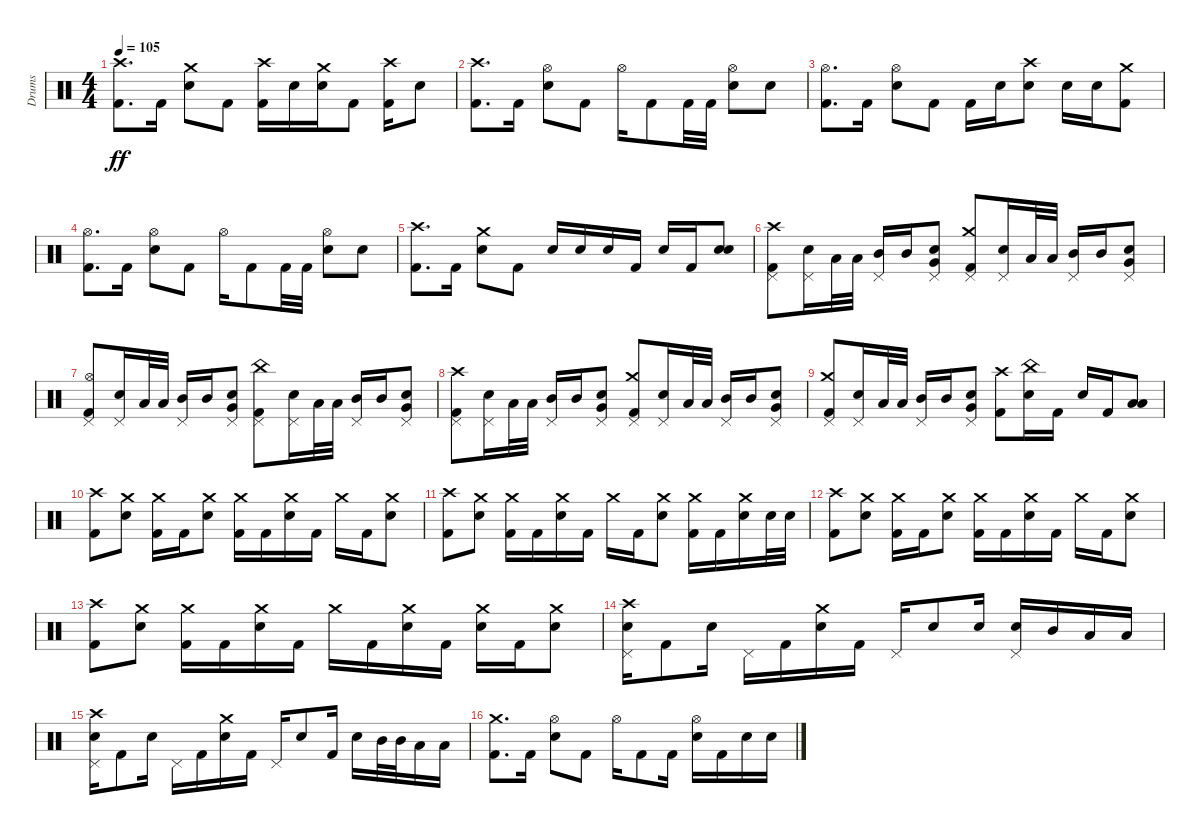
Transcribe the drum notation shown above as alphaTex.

\track ("Drums" "Drums") {instrument percussion}
\staff {score}
\articulation defaults
\ts (4 4)
\tempo 105
\clef neutral
\ks c
("Crash high (hit)" "Kick (hit) 2").8{d dy ff} "Kick (hit) 2".16 ("Crash medium (hit)" "Electric Snare (hit)").8 "Kick (hit) 2".8 ("Crash high (hit)" "Kick (hit) 2").16 "Electric Snare (hit)".16 ("Crash medium (hit)" "Electric Snare (hit)").16 "Kick (hit) 2".8 ("Crash high (hit)" "Kick (hit) 2").16 "Electric Snare (hit)".8 |
("Crash high (hit)" "Kick (hit) 2").8{d} "Kick (hit) 2".16 ("Hi-Hat (open)" "Electric Snare (hit)").8 "Kick (hit) 2".8 "Hi-Hat (open)".16 "Kick (hit) 2".8 "Kick (hit) 2".32 "Kick (hit) 2".32 ("Hi-Hat (open)" "Electric Snare (hit)").8 "Electric Snare (hit)".8 |
("Hi-Hat (open)" "Kick (hit) 2").8{d} "Kick (hit) 2".16 ("Hi-Hat (open)" "Electric Snare (hit)").8 "Kick (hit) 2".8 "Kick (hit) 2".16 "Electric Snare (hit)".16 ("Crash high (hit)" "Electric Snare (hit)").8 "Electric Snare (hit)".16 "Electric Snare (hit)".16 ("Crash medium (hit)" "Kick (hit) 2").8 |
("Hi-Hat (open)" "Kick (hit) 2").8{d} "Kick (hit) 2".16 ("Hi-Hat (open)" "Electric Snare (hit)").8 "Kick (hit) 2".8 "Hi-Hat (open)".16 "Kick (hit) 2".8 "Kick (hit) 2".32 "Kick (hit) 2".32 ("Hi-Hat (open)" "Electric Snare (hit)").8 "Electric Snare (hit)".8 |
("Crash high (hit)" "Kick (hit) 2").8{d} "Kick (hit) 2".16 ("Crash medium (hit)" "Electric Snare (hit)").8 "Kick (hit) 2".8 "Electric Snare (hit)".16 "Electric Snare (hit)".16 "Electric Snare (hit)".16 "Kick (hit) 2".16 "Electric Snare (hit)".16 "Kick (hit) 2".16 ("Electric Snare (hit)" "Electric Snare (hit)").8{bd 240} |
("Pedal Hi-Hat (hit)" "Crash high (hit)" "Kick (hit) 2").8 ("Pedal Hi-Hat (hit)" "Electric Snare (hit)").16 "Low Tom (hit)".32 "Low Tom (hit)".32 ("Pedal Hi-Hat (hit)" "Mid Tom (hit)").16 "Mid Tom (hit)".16 ("Pedal Hi-Hat (hit)" "Very Low Tom (hit)" "Electric Snare (hit)").8 ("Pedal Hi-Hat (hit)" "Crash medium (hit)" "Kick (hit) 2").8 ("Pedal Hi-Hat (hit)" "Electric Snare (hit)").16 "Low Tom (hit)".32 "Low Tom (hit)".32 ("Pedal Hi-Hat (hit)" "Mid Tom (hit)").16 "Mid Tom (hit)".16 ("Pedal Hi-Hat (hit)" "Very Low Tom (hit)" "Electric Snare (hit)").8 |
("Pedal Hi-Hat (hit)" "Hi-Hat (open)" "Kick (hit) 2").8 ("Pedal Hi-Hat (hit)" "Electric Snare (hit)").16 "Low Tom (hit)".32 "Low Tom (hit)".32 ("Pedal Hi-Hat (hit)" "Mid Tom (hit)").16 "Mid Tom (hit)".16 ("Pedal Hi-Hat (hit)" "Very Low Tom (hit)" "Electric Snare (hit)").8 ("Pedal Hi-Hat (hit)" "China (hit)" "Kick (hit) 2").8 ("Pedal Hi-Hat (hit)" "Electric Snare (hit)").16 "Low Tom (hit)".32 "Low Tom (hit)".32 ("Pedal Hi-Hat (hit)" "Mid Tom (hit)").16 "Mid Tom (hit)".16 ("Pedal Hi-Hat (hit)" "Very Low Tom (hit)" "Electric Snare (hit)").8 |
("Pedal Hi-Hat (hit)" "Crash high (hit)" "Kick (hit) 2").8 ("Pedal Hi-Hat (hit)" "Electric Snare (hit)").16 "Low Tom (hit)".32 "Low Tom (hit)".32 ("Pedal Hi-Hat (hit)" "Mid Tom (hit)").16 "Mid Tom (hit)".16 ("Pedal Hi-Hat (hit)" "Very Low Tom (hit)" "Electric Snare (hit)").8 ("Pedal Hi-Hat (hit)" "Crash medium (hit)" "Kick (hit) 2").8 ("Pedal Hi-Hat (hit)" "Electric Snare (hit)").16 "Low Tom (hit)".32 "Low Tom (hit)".32 ("Pedal Hi-Hat (hit)" "Mid Tom (hit)").16 "Mid Tom (hit)".16 ("Pedal Hi-Hat (hit)" "Very Low Tom (hit)" "Electric Snare (hit)").8 |
("Pedal Hi-Hat (hit)" "Crash medium (hit)" "Kick (hit) 2").8 ("Pedal Hi-Hat (hit)" "Electric Snare (hit)").16 "Low Tom (hit)".32 "Low Tom (hit)".32 ("Pedal Hi-Hat (hit)" "Mid Tom (hit)").16 "Mid Tom (hit)".16 ("Pedal Hi-Hat (hit)" "Very Low Tom (hit)" "Electric Snare (hit)").8 ("Crash high (hit)" "Kick (hit) 2").8 ("China (hit)" "Electric Snare (hit)").16 "Kick (hit) 2".16 "Electric Snare (hit)".16 "Kick (hit) 2".16 ("Low Tom (hit)" "Low Floor Tom (hit)").8{bd 240} |
("Crash high (hit)" "Kick (hit) 2").8 ("Crash medium (hit)" "Electric Snare (hit)").8 ("Crash medium (hit)" "Kick (hit) 2").16 "Kick (hit) 2".16 ("Crash medium (hit)" "Electric Snare (hit)").8 ("Crash medium (hit)" "Kick (hit) 2").16 "Kick (hit) 2".16 ("Crash medium (hit)" "Electric Snare (hit)").16 "Kick (hit) 2".16 "Crash medium (hit)".16 "Kick (hit) 2".16 ("Crash medium (hit)" "Electric Snare (hit)").8 |
("Crash high (hit)" "Kick (hit) 2").8 ("Crash medium (hit)" "Electric Snare (hit)").8 ("Crash medium (hit)" "Kick (hit) 2").16 "Kick (hit) 2".16 ("Crash medium (hit)" "Electric Snare (hit)").16 "Kick (hit) 2".16 "Crash medium (hit)".16 "Kick (hit) 2".16 ("Crash medium (hit)" "Electric Snare (hit)").8 ("Crash medium (hit)" "Kick (hit) 2").16 "Kick (hit) 2".16 ("Crash medium (hit)" "Electric Snare (hit)").16 "Electric Snare (hit)".32 "Electric Snare (hit)".32 |
("Crash high (hit)" "Kick (hit) 2").8 ("Crash medium (hit)" "Electric Snare (hit)").8 ("Crash medium (hit)" "Kick (hit) 2").16 "Kick (hit) 2".16 ("Crash medium (hit)" "Electric Snare (hit)").8 ("Crash medium (hit)" "Kick (hit) 2").16 "Kick (hit) 2".16 ("Crash medium (hit)" "Electric Snare (hit)").16 "Kick (hit) 2".16 "Crash medium (hit)".16 "Kick (hit) 2".16 ("Crash medium (hit)" "Electric Snare (hit)").8 |
("Crash high (hit)" "Kick (hit) 2").8 ("Crash medium (hit)" "Electric Snare (hit)").8 ("Crash medium (hit)" "Kick (hit) 2").16 "Kick (hit) 2".16 ("Crash medium (hit)" "Electric Snare (hit)").16 "Kick (hit) 2".16 "Crash medium (hit)".16 "Kick (hit) 2".16 ("Crash medium (hit)" "Electric Snare (hit)").16 "Kick (hit) 2".16 ("Crash medium (hit)" "Electric Snare (hit)").16 "Kick (hit) 2".16 ("Crash medium (hit)" "Electric Snare (hit)").8 |
("Crash high (hit)" "Pedal Hi-Hat (hit)" "Electric Snare (hit)").16 "Kick (hit) 2".8 "Electric Snare (hit)".16 "Pedal Hi-Hat (hit)".16 "Kick (hit) 2".16 ("Crash medium (hit)" "Electric Snare (hit)").16 "Kick (hit) 2".16 "Pedal Hi-Hat (hit)".16 "Electric Snare (hit)".8 "Electric Snare (hit)".16 ("Pedal Hi-Hat (hit)" "Electric Snare (hit)").16 "Mid Tom (hit)".16 "Low Tom (hit)".16 "Low Tom (hit)".16 |
("Crash high (hit)" "Pedal Hi-Hat (hit)" "Electric Snare (hit)").16 "Kick (hit) 2".8 "Electric Snare (hit)".16 "Pedal Hi-Hat (hit)".16 "Kick (hit) 2".16 ("Crash medium (hit)" "Electric Snare (hit)").16 "Kick (hit) 2".16 "Pedal Hi-Hat (hit)".16 "Electric Snare (hit)".8 "Kick (hit) 2".16 "Electric Snare (hit)".16 "Mid Tom (hit)".32 "Mid Tom (hit)".32 "Low Tom (hit)".16 "Low Tom (hit)".16 |
("Crash medium (hit)" "Kick (hit) 2").8{d} "Kick (hit) 2".16 ("Hi-Hat (open)" "Electric Snare (hit)").8 "Kick (hit) 2".8 "Hi-Hat (open)".16 "Kick (hit) 2".8 "Kick (hit) 2".16 ("Hi-Hat (open)" "Electric Snare (hit)").16 "Kick (hit) 2".16 "Electric Snare (hit)".16 "Electric Snare (hit)".16
